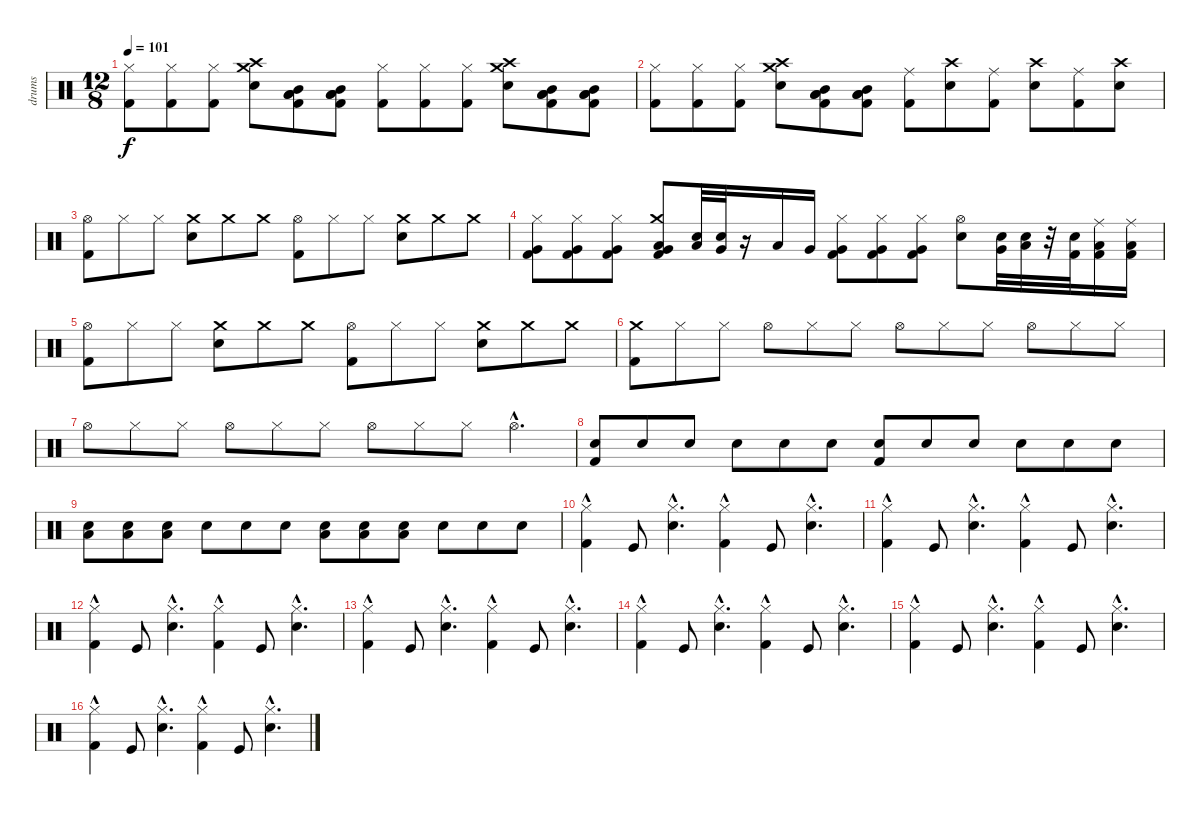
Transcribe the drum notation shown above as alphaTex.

\track ("drums" "drums") {instrument percussion}
\staff {score}
\articulation defaults
\ts (12 8)
\tempo 101
\clef neutral
\ks c
("Hi-Hat (closed)" "Kick (hit) 2").8{dy f} ("Hi-Hat (closed)" "Kick (hit) 2").8 ("Hi-Hat (closed)" "Kick (hit) 2").8 ("Snare (hit) 2" "Crash high (hit)" "Crash medium (hit)").8 ("Kick (hit) 2" "Low Tom (hit)" "Low Floor Tom (hit)" "Mid Tom (hit)").8 ("Kick (hit) 2" "Mid Tom (hit)" "Low Floor Tom (hit)" "Low Tom (hit)").8 ("Hi-Hat (closed)" "Kick (hit) 2").8 ("Hi-Hat (closed)" "Kick (hit) 2").8 ("Hi-Hat (closed)" "Kick (hit) 2").8 ("Crash medium (hit)" "Crash high (hit)" "Snare (hit) 2").8 ("Kick (hit) 2" "Mid Tom (hit)" "Low Tom (hit)" "Low Floor Tom (hit)").8 ("Kick (hit) 2" "Mid Tom (hit)" "Low Tom (hit)" "Low Floor Tom (hit)").8 |
("Hi-Hat (closed)" "Kick (hit) 2").8 ("Hi-Hat (closed)" "Kick (hit) 2").8 ("Hi-Hat (closed)" "Kick (hit) 2").8 ("Snare (hit) 2" "Crash high (hit)" "Crash medium (hit)").8 ("Kick (hit) 2" "Low Floor Tom (hit)" "Mid Tom (hit)" "Low Tom (hit)").8 ("Kick (hit) 2" "Mid Tom (hit)" "Low Tom (hit)" "Low Floor Tom (hit)").8 ("Ride (middle)" "Kick (hit) 2").8 ("Crash high (hit)" "Snare (hit) 2").8 ("Ride (middle)" "Kick (hit) 2").8 ("Crash high (hit)" "Snare (hit) 2").8 ("Ride (middle)" "Kick (hit) 2").8 ("Crash high (hit)" "Snare (hit) 2").8 |
("Hi-Hat (open)" "Kick (hit) 2").8 "Hi-Hat (closed)".8 "Hi-Hat (closed)".8 ("Snare (hit) 2" "Crash medium (hit)").8 "Crash medium (hit)".8 "Crash medium (hit)".8 ("Hi-Hat (open)" "Kick (hit) 2").8 "Hi-Hat (closed)".8 "Hi-Hat (closed)".8 ("Snare (hit) 2" "Crash medium (hit)").8 "Crash medium (hit)".8 "Crash medium (hit)".8 |
("Hi-Hat (closed)" "Kick (hit) 2" "Very Low Tom (hit)").8 ("Hi-Hat (closed)" "Kick (hit) 2" "Very Low Tom (hit)").8 ("Hi-Hat (closed)" "Kick (hit) 2" "Very Low Tom (hit)").8 ("Crash medium (hit)" "Low Floor Tom (hit)" "Kick (hit) 2" "Very Low Tom (hit)").8 ("Snare (hit) 2" "Low Tom (hit)").32 ("Snare (hit) 2" "Very Low Tom (hit)").32 r.16 "Low Floor Tom (hit)".16 "Very Low Tom (hit)".16 ("Hi-Hat (closed)" "Very Low Tom (hit)" "Kick (hit) 2").8 ("Hi-Hat (closed)" "Very Low Tom (hit)" "Kick (hit) 2").8 ("Hi-Hat (closed)" "Very Low Tom (hit)" "Kick (hit) 2").8 ("Hi-Hat (open)" "Electric Snare (hit)").8 ("Very Low Tom (hit)" "Snare (hit) 2").32 ("Low Floor Tom (hit)" "Snare (hit) 2").32 r.32 ("Kick (hit) 2" "Snare (hit) 2").32 ("Kick (hit) 2" "Ride (middle)" "Low Floor Tom (hit)").16 ("Kick (hit) 2" "Ride (middle)" "Low Floor Tom (hit)").16 |
("Hi-Hat (open)" "Kick (hit) 2").8 "Hi-Hat (closed)".8 "Hi-Hat (closed)".8 ("Snare (hit) 2" "Crash medium (hit)").8 "Crash medium (hit)".8 "Crash medium (hit)".8 ("Hi-Hat (open)" "Kick (hit) 2").8 "Hi-Hat (closed)".8 "Hi-Hat (closed)".8 ("Snare (hit) 2" "Crash medium (hit)").8 "Crash medium (hit)".8 "Crash medium (hit)".8 |
("Kick (hit) 2" "Crash medium (hit)").8 "Hi-Hat (closed)".8 "Hi-Hat (closed)".8 "Hi-Hat (open)".8 "Hi-Hat (closed)".8 "Hi-Hat (closed)".8 "Hi-Hat (open)".8 "Hi-Hat (closed)".8 "Hi-Hat (closed)".8 "Hi-Hat (open)".8 "Hi-Hat (closed)".8 "Hi-Hat (closed)".8 |
"Hi-Hat (open)".8 "Hi-Hat (closed)".8 "Hi-Hat (closed)".8 "Hi-Hat (open)".8 "Hi-Hat (closed)".8 "Hi-Hat (closed)".8 "Hi-Hat (open)".8 "Hi-Hat (closed)".8 "Hi-Hat (closed)".8 "Hi-Hat (open)"{hac}.4{d} |
("Kick (hit) 2" "Snare (hit) 2").8 "Snare (hit) 2".8 "Snare (hit) 2".8 "Snare (hit) 2".8 "Snare (hit) 2".8 "Snare (hit) 2".8 ("Kick (hit) 2" "Snare (hit) 2").8 "Snare (hit) 2".8 "Snare (hit) 2".8 "Snare (hit) 2".8 "Snare (hit) 2".8 "Snare (hit) 2".8 |
("Electric Snare (hit)" "Low Tom (hit)").8 ("Electric Snare (hit)" "Low Tom (hit)").8 ("Electric Snare (hit)" "Low Tom (hit)").8 "Electric Snare (hit)".8 "Electric Snare (hit)".8 "Electric Snare (hit)".8 ("Electric Snare (hit)" "Low Tom (hit)").8 ("Low Tom (hit)" "Electric Snare (hit)").8 ("Low Tom (hit)" "Electric Snare (hit)").8 "Snare (hit) 2".8 "Snare (hit) 2".8 "Snare (hit) 2".8 |
("Hi-Hat (closed)"{hac} "Kick (hit) 2").4 "Kick (hit)".8 ("Hi-Hat (closed)"{hac} "Snare (hit) 2"{hac}).4{d} ("Hi-Hat (closed)"{hac} "Kick (hit) 2").4 "Kick (hit)".8 ("Hi-Hat (closed)"{hac} "Snare (hit) 2"{hac}).4{d} |
("Kick (hit) 2" "Hi-Hat (closed)"{hac}).4 "Kick (hit)".8 ("Hi-Hat (closed)"{hac} "Snare (hit) 2"{hac}).4{d} ("Kick (hit) 2" "Hi-Hat (closed)"{hac}).4 "Kick (hit)".8 ("Hi-Hat (closed)"{hac} "Snare (hit) 2"{hac}).4{d} |
("Kick (hit) 2" "Hi-Hat (closed)"{hac}).4 "Kick (hit)".8 ("Hi-Hat (closed)"{hac} "Snare (hit) 2"{hac}).4{d} ("Kick (hit) 2" "Hi-Hat (closed)"{hac}).4 "Kick (hit)".8 ("Hi-Hat (closed)"{hac} "Snare (hit) 2"{hac}).4{d} |
("Kick (hit) 2" "Hi-Hat (closed)"{hac}).4 "Kick (hit)".8 ("Hi-Hat (closed)"{hac} "Snare (hit) 2"{hac}).4{d} ("Kick (hit) 2" "Hi-Hat (closed)"{hac}).4 "Kick (hit)".8 ("Hi-Hat (closed)"{hac} "Snare (hit) 2"{hac}).4{d} |
("Kick (hit) 2" "Hi-Hat (closed)"{hac}).4 "Kick (hit)".8 ("Hi-Hat (closed)"{hac} "Snare (hit) 2"{hac}).4{d} ("Hi-Hat (closed)"{hac} "Kick (hit) 2").4 "Kick (hit)".8 ("Hi-Hat (closed)"{hac} "Snare (hit) 2"{hac}).4{d} |
("Hi-Hat (closed)"{hac} "Kick (hit) 2").4 "Kick (hit)".8 ("Hi-Hat (closed)"{hac} "Snare (hit) 2"{hac}).4{d} ("Hi-Hat (closed)"{hac} "Kick (hit) 2").4 "Kick (hit)".8 ("Hi-Hat (closed)"{hac} "Snare (hit) 2"{hac}).4{d} |
("Hi-Hat (closed)"{hac} "Kick (hit) 2").4 "Kick (hit)".8 ("Hi-Hat (closed)"{hac} "Snare (hit) 2"{hac}).4{d} ("Hi-Hat (closed)"{hac} "Kick (hit) 2").4 "Kick (hit)".8 ("Hi-Hat (closed)"{hac} "Snare (hit) 2"{hac}).4{d}
